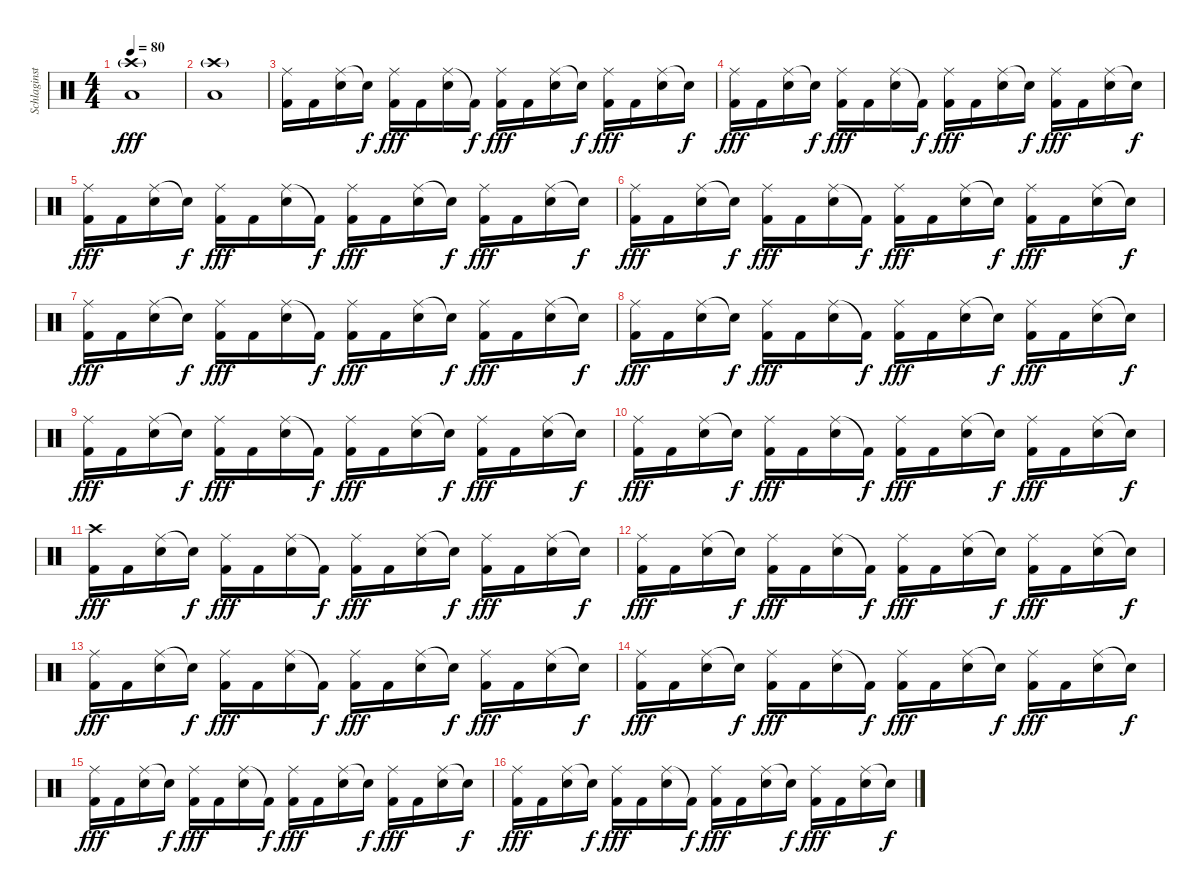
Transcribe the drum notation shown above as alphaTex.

\track ("Schlaginstrumente - Auswahl" "Schlaginst") {instrument percussion}
\staff {score}
\articulation defaults
\ts (4 4)
\tempo 80
\clef neutral
\ks c
("Crash high (hit)"{g} "Low Floor Tom (hit)").1{dy fff} |
("Crash high (hit)"{g} "Low Floor Tom (hit)").1 |
("Ride (middle)" "Kick (hit) 2").16 "Kick (hit) 2".16 ("Ride (middle)" "Snare (hit) 2").16 "Snare (hit)"{t}.16{dy f} ("Ride (middle)" "Kick (hit) 2").16{dy fff} "Kick (hit) 2".16 ("Ride (middle)" "Snare (hit) 2").16 "Kick (hit) 2"{t}.16{dy f} ("Ride (middle)" "Kick (hit) 2").16{dy fff} "Kick (hit) 2".16 ("Ride (middle)" "Snare (hit) 2").16 "Snare (hit)"{t}.16{dy f} ("Ride (middle)" "Kick (hit) 2").16{dy fff} "Kick (hit) 2".16 ("Ride (middle)" "Snare (hit) 2").16 "Snare (hit)"{t}.16{dy f} |
("Ride (middle)" "Kick (hit) 2").16{dy fff} "Kick (hit) 2".16 ("Ride (middle)" "Snare (hit) 2").16 "Snare (hit)"{t}.16{dy f} ("Ride (middle)" "Kick (hit) 2").16{dy fff} "Kick (hit) 2".16 ("Ride (middle)" "Snare (hit) 2").16 "Kick (hit) 2"{t}.16{dy f} ("Ride (middle)" "Kick (hit) 2").16{dy fff} "Kick (hit) 2".16 ("Ride (middle)" "Snare (hit) 2").16 "Snare (hit)"{t}.16{dy f} ("Ride (middle)" "Kick (hit) 2").16{dy fff} "Kick (hit) 2".16 ("Ride (middle)" "Snare (hit) 2").16 "Snare (hit)"{t}.16{dy f} |
("Ride (middle)" "Kick (hit) 2").16{dy fff} "Kick (hit) 2".16 ("Ride (middle)" "Snare (hit) 2").16 "Snare (hit)"{t}.16{dy f} ("Ride (middle)" "Kick (hit) 2").16{dy fff} "Kick (hit) 2".16 ("Ride (middle)" "Snare (hit) 2").16 "Kick (hit) 2"{t}.16{dy f} ("Ride (middle)" "Kick (hit) 2").16{dy fff} "Kick (hit) 2".16 ("Ride (middle)" "Snare (hit) 2").16 "Snare (hit)"{t}.16{dy f} ("Ride (middle)" "Kick (hit) 2").16{dy fff} "Kick (hit) 2".16 ("Ride (middle)" "Snare (hit) 2").16 "Snare (hit)"{t}.16{dy f} |
("Ride (middle)" "Kick (hit) 2").16{dy fff} "Kick (hit) 2".16 ("Ride (middle)" "Snare (hit) 2").16 "Snare (hit)"{t}.16{dy f} ("Ride (middle)" "Kick (hit) 2").16{dy fff} "Kick (hit) 2".16 ("Ride (middle)" "Snare (hit) 2").16 "Kick (hit) 2"{t}.16{dy f} ("Ride (middle)" "Kick (hit) 2").16{dy fff} "Kick (hit) 2".16 ("Ride (middle)" "Snare (hit) 2").16 "Snare (hit)"{t}.16{dy f} ("Ride (middle)" "Kick (hit) 2").16{dy fff} "Kick (hit) 2".16 ("Ride (middle)" "Snare (hit) 2").16 "Snare (hit)"{t}.16{dy f} |
("Ride (middle)" "Kick (hit) 2").16{dy fff} "Kick (hit) 2".16 ("Ride (middle)" "Snare (hit) 2").16 "Snare (hit)"{t}.16{dy f} ("Ride (middle)" "Kick (hit) 2").16{dy fff} "Kick (hit) 2".16 ("Ride (middle)" "Snare (hit) 2").16 "Kick (hit) 2"{t}.16{dy f} ("Ride (middle)" "Kick (hit) 2").16{dy fff} "Kick (hit) 2".16 ("Ride (middle)" "Snare (hit) 2").16 "Snare (hit)"{t}.16{dy f} ("Ride (middle)" "Kick (hit) 2").16{dy fff} "Kick (hit) 2".16 ("Ride (middle)" "Snare (hit) 2").16 "Snare (hit)"{t}.16{dy f} |
("Ride (middle)" "Kick (hit) 2").16{dy fff} "Kick (hit) 2".16 ("Ride (middle)" "Snare (hit) 2").16 "Snare (hit)"{t}.16{dy f} ("Ride (middle)" "Kick (hit) 2").16{dy fff} "Kick (hit) 2".16 ("Ride (middle)" "Snare (hit) 2").16 "Kick (hit) 2"{t}.16{dy f} ("Ride (middle)" "Kick (hit) 2").16{dy fff} "Kick (hit) 2".16 ("Ride (middle)" "Snare (hit) 2").16 "Snare (hit)"{t}.16{dy f} ("Ride (middle)" "Kick (hit) 2").16{dy fff} "Kick (hit) 2".16 ("Ride (middle)" "Snare (hit) 2").16 "Snare (hit)"{t}.16{dy f} |
("Ride (middle)" "Kick (hit) 2").16{dy fff} "Kick (hit) 2".16 ("Ride (middle)" "Snare (hit) 2").16 "Snare (hit)"{t}.16{dy f} ("Ride (middle)" "Kick (hit) 2").16{dy fff} "Kick (hit) 2".16 ("Ride (middle)" "Snare (hit) 2").16 "Kick (hit) 2"{t}.16{dy f} ("Ride (middle)" "Kick (hit) 2").16{dy fff} "Kick (hit) 2".16 ("Ride (middle)" "Snare (hit) 2").16 "Snare (hit)"{t}.16{dy f} ("Ride (middle)" "Kick (hit) 2").16{dy fff} "Kick (hit) 2".16 ("Ride (middle)" "Snare (hit) 2").16 "Snare (hit)"{t}.16{dy f} |
("Ride (middle)" "Kick (hit) 2").16{dy fff} "Kick (hit) 2".16 ("Ride (middle)" "Snare (hit) 2").16 "Snare (hit)"{t}.16{dy f} ("Ride (middle)" "Kick (hit) 2").16{dy fff} "Kick (hit) 2".16 ("Ride (middle)" "Snare (hit) 2").16 "Kick (hit) 2"{t}.16{dy f} ("Ride (middle)" "Kick (hit) 2").16{dy fff} "Kick (hit) 2".16 ("Ride (middle)" "Snare (hit) 2").16 "Snare (hit)"{t}.16{dy f} ("Ride (middle)" "Kick (hit) 2").16{dy fff} "Kick (hit) 2".16 ("Ride (middle)" "Snare (hit) 2").16 "Snare (hit)"{t}.16{dy f} |
("Crash high (hit)" "Kick (hit) 2").16{dy fff} "Kick (hit) 2".16 ("Ride (middle)" "Snare (hit) 2").16 "Snare (hit)"{t}.16{dy f} ("Ride (middle)" "Kick (hit) 2").16{dy fff} "Kick (hit) 2".16 ("Ride (middle)" "Snare (hit) 2").16 "Kick (hit) 2"{t}.16{dy f} ("Ride (middle)" "Kick (hit) 2").16{dy fff} "Kick (hit) 2".16 ("Ride (middle)" "Snare (hit) 2").16 "Snare (hit)"{t}.16{dy f} ("Ride (middle)" "Kick (hit) 2").16{dy fff} "Kick (hit) 2".16 ("Ride (middle)" "Snare (hit) 2").16 "Snare (hit)"{t}.16{dy f} |
("Ride (middle)" "Kick (hit) 2").16{dy fff} "Kick (hit) 2".16 ("Ride (middle)" "Snare (hit) 2").16 "Snare (hit)"{t}.16{dy f} ("Ride (middle)" "Kick (hit) 2").16{dy fff} "Kick (hit) 2".16 ("Ride (middle)" "Snare (hit) 2").16 "Kick (hit) 2"{t}.16{dy f} ("Ride (middle)" "Kick (hit) 2").16{dy fff} "Kick (hit) 2".16 ("Ride (middle)" "Snare (hit) 2").16 "Snare (hit)"{t}.16{dy f} ("Ride (middle)" "Kick (hit) 2").16{dy fff} "Kick (hit) 2".16 ("Ride (middle)" "Snare (hit) 2").16 "Snare (hit)"{t}.16{dy f} |
("Ride (middle)" "Kick (hit) 2").16{dy fff} "Kick (hit) 2".16 ("Ride (middle)" "Snare (hit) 2").16 "Snare (hit)"{t}.16{dy f} ("Ride (middle)" "Kick (hit) 2").16{dy fff} "Kick (hit) 2".16 ("Ride (middle)" "Snare (hit) 2").16 "Kick (hit) 2"{t}.16{dy f} ("Ride (middle)" "Kick (hit) 2").16{dy fff} "Kick (hit) 2".16 ("Ride (middle)" "Snare (hit) 2").16 "Snare (hit)"{t}.16{dy f} ("Ride (middle)" "Kick (hit) 2").16{dy fff} "Kick (hit) 2".16 ("Ride (middle)" "Snare (hit) 2").16 "Snare (hit)"{t}.16{dy f} |
("Ride (middle)" "Kick (hit) 2").16{dy fff} "Kick (hit) 2".16 ("Ride (middle)" "Snare (hit) 2").16 "Snare (hit)"{t}.16{dy f} ("Ride (middle)" "Kick (hit) 2").16{dy fff} "Kick (hit) 2".16 ("Ride (middle)" "Snare (hit) 2").16 "Kick (hit) 2"{t}.16{dy f} ("Ride (middle)" "Kick (hit) 2").16{dy fff} "Kick (hit) 2".16 ("Ride (middle)" "Snare (hit) 2").16 "Snare (hit)"{t}.16{dy f} ("Ride (middle)" "Kick (hit) 2").16{dy fff} "Kick (hit) 2".16 ("Ride (middle)" "Snare (hit) 2").16 "Snare (hit)"{t}.16{dy f} |
("Ride (middle)" "Kick (hit) 2").16{dy fff} "Kick (hit) 2".16 ("Ride (middle)" "Snare (hit) 2").16 "Snare (hit)"{t}.16{dy f} ("Ride (middle)" "Kick (hit) 2").16{dy fff} "Kick (hit) 2".16 ("Ride (middle)" "Snare (hit) 2").16 "Kick (hit) 2"{t}.16{dy f} ("Ride (middle)" "Kick (hit) 2").16{dy fff} "Kick (hit) 2".16 ("Ride (middle)" "Snare (hit) 2").16 "Snare (hit)"{t}.16{dy f} ("Ride (middle)" "Kick (hit) 2").16{dy fff} "Kick (hit) 2".16 ("Ride (middle)" "Snare (hit) 2").16 "Snare (hit)"{t}.16{dy f} |
("Ride (middle)" "Kick (hit) 2").16{dy fff} "Kick (hit) 2".16 ("Ride (middle)" "Snare (hit) 2").16 "Snare (hit)"{t}.16{dy f} ("Ride (middle)" "Kick (hit) 2").16{dy fff} "Kick (hit) 2".16 ("Ride (middle)" "Snare (hit) 2").16 "Kick (hit) 2"{t}.16{dy f} ("Ride (middle)" "Kick (hit) 2").16{dy fff} "Kick (hit) 2".16 ("Ride (middle)" "Snare (hit) 2").16 "Snare (hit)"{t}.16{dy f} ("Ride (middle)" "Kick (hit) 2").16{dy fff} "Kick (hit) 2".16 ("Ride (middle)" "Snare (hit) 2").16 "Snare (hit)"{t}.16{dy f}
